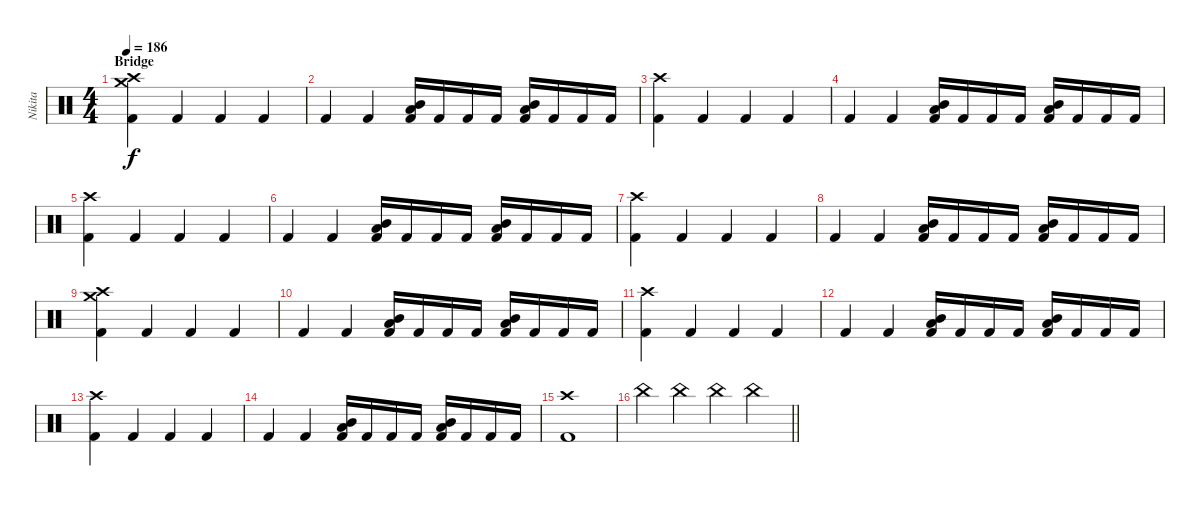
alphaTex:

\track ("Nikita" "Nikita") {instrument percussion}
\staff {score}
\articulation defaults
\ts (4 4)
\section ("" "Bridge")
\tempo 186
\clef neutral
\ks c
("Crash high (hit)" "Crash medium (hit)" "Kick (hit) 2").4{dy f} "Kick (hit) 2".4 "Kick (hit) 2".4 "Kick (hit) 2".4 |
"Kick (hit) 2".4 "Kick (hit) 2".4 ("Low Floor Tom (hit)" "Mid Tom (hit)" "Kick (hit) 2").16 "Kick (hit) 2".16 "Kick (hit) 2".16 "Kick (hit) 2".16 ("Low Floor Tom (hit)" "Mid Tom (hit)" "Kick (hit) 2").16 "Kick (hit) 2".16 "Kick (hit) 2".16 "Kick (hit) 2".16 |
("Crash high (hit)" "Kick (hit) 2").4 "Kick (hit) 2".4 "Kick (hit) 2".4 "Kick (hit) 2".4 |
"Kick (hit) 2".4 "Kick (hit) 2".4 ("Low Floor Tom (hit)" "Mid Tom (hit)" "Kick (hit) 2").16 "Kick (hit) 2".16 "Kick (hit) 2".16 "Kick (hit) 2".16 ("Low Floor Tom (hit)" "Mid Tom (hit)" "Kick (hit) 2").16 "Kick (hit) 2".16 "Kick (hit) 2".16 "Kick (hit) 2".16 |
("Crash high (hit)" "Kick (hit) 2").4 "Kick (hit) 2".4 "Kick (hit) 2".4 "Kick (hit) 2".4 |
"Kick (hit) 2".4 "Kick (hit) 2".4 ("Low Floor Tom (hit)" "Mid Tom (hit)" "Kick (hit) 2").16 "Kick (hit) 2".16 "Kick (hit) 2".16 "Kick (hit) 2".16 ("Low Floor Tom (hit)" "Mid Tom (hit)" "Kick (hit) 2").16 "Kick (hit) 2".16 "Kick (hit) 2".16 "Kick (hit) 2".16 |
("Crash high (hit)" "Kick (hit) 2").4 "Kick (hit) 2".4 "Kick (hit) 2".4 "Kick (hit) 2".4 |
"Kick (hit) 2".4 "Kick (hit) 2".4 ("Low Floor Tom (hit)" "Mid Tom (hit)" "Kick (hit) 2").16 "Kick (hit) 2".16 "Kick (hit) 2".16 "Kick (hit) 2".16 ("Low Floor Tom (hit)" "Mid Tom (hit)" "Kick (hit) 2").16 "Kick (hit) 2".16 "Kick (hit) 2".16 "Kick (hit) 2".16 |
("Crash high (hit)" "Crash medium (hit)" "Kick (hit) 2").4 "Kick (hit) 2".4 "Kick (hit) 2".4 "Kick (hit) 2".4 |
"Kick (hit) 2".4 "Kick (hit) 2".4 ("Low Floor Tom (hit)" "Mid Tom (hit)" "Kick (hit) 2").16 "Kick (hit) 2".16 "Kick (hit) 2".16 "Kick (hit) 2".16 ("Low Floor Tom (hit)" "Mid Tom (hit)" "Kick (hit) 2").16 "Kick (hit) 2".16 "Kick (hit) 2".16 "Kick (hit) 2".16 |
("Crash high (hit)" "Kick (hit) 2").4 "Kick (hit) 2".4 "Kick (hit) 2".4 "Kick (hit) 2".4 |
"Kick (hit) 2".4 "Kick (hit) 2".4 ("Low Floor Tom (hit)" "Mid Tom (hit)" "Kick (hit) 2").16 "Kick (hit) 2".16 "Kick (hit) 2".16 "Kick (hit) 2".16 ("Low Floor Tom (hit)" "Mid Tom (hit)" "Kick (hit) 2").16 "Kick (hit) 2".16 "Kick (hit) 2".16 "Kick (hit) 2".16 |
("Crash high (hit)" "Kick (hit) 2").4 "Kick (hit) 2".4 "Kick (hit) 2".4 "Kick (hit) 2".4 |
"Kick (hit) 2".4 "Kick (hit) 2".4 ("Low Floor Tom (hit)" "Mid Tom (hit)" "Kick (hit) 2").16 "Kick (hit) 2".16 "Kick (hit) 2".16 "Kick (hit) 2".16 ("Low Floor Tom (hit)" "Mid Tom (hit)" "Kick (hit) 2").16 "Kick (hit) 2".16 "Kick (hit) 2".16 "Kick (hit) 2".16 |
("Crash high (hit)" "Kick (hit) 2").1 |
\barLineRight lightlight "China (hit)".4 "China (hit)".4 "China (hit)".4 "China (hit)".4
